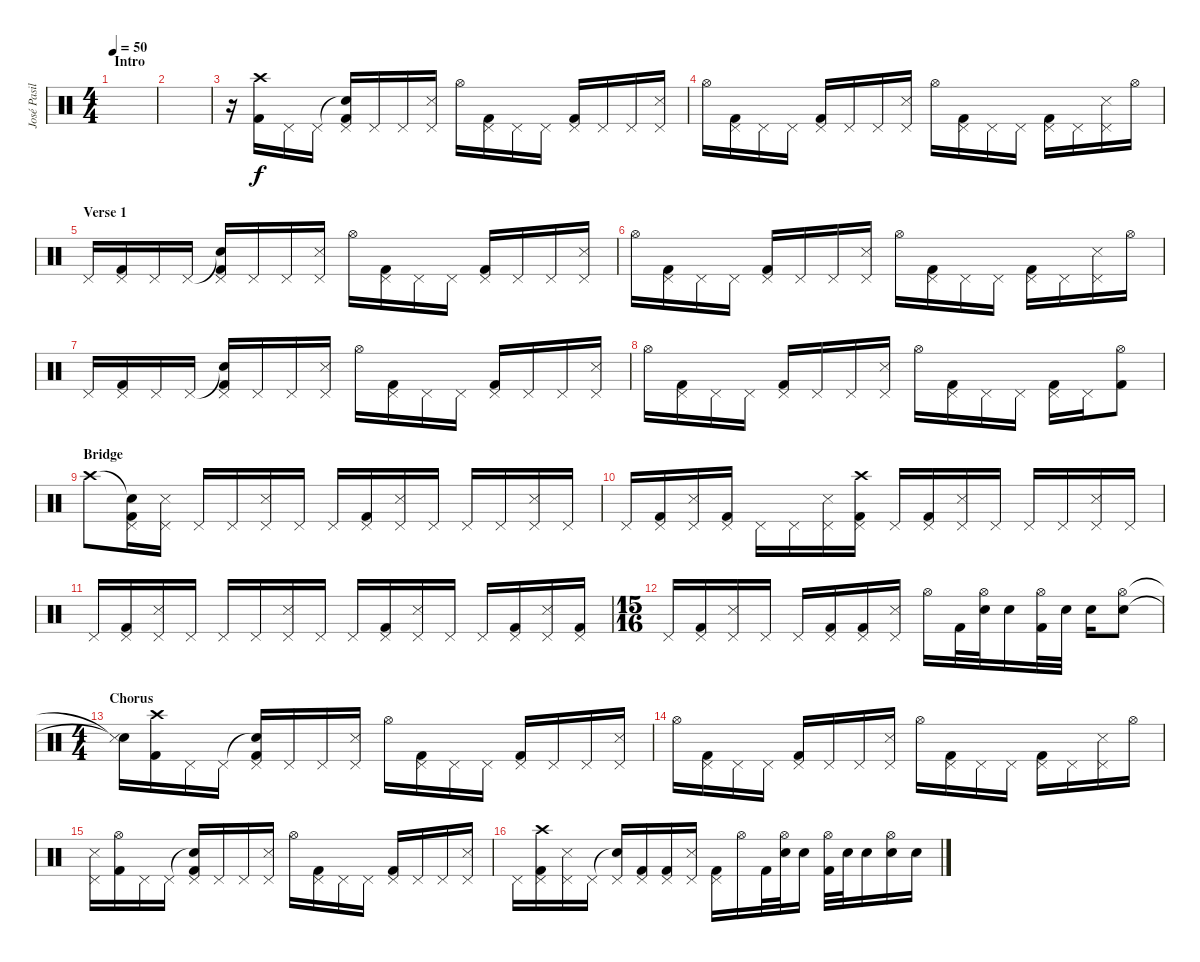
\track ("José Pasillas" "José Pasil") {instrument percussion}
\staff {score}
\articulation defaults
\ts (4 4)
\section ("" "Intro")
\tempo 50
\clef neutral
\ks c
|
|
r.16 ("Crash high (hit)" "Kick (hit) 2").16 "Pedal Hi-Hat (hit)".16 "Pedal Hi-Hat (hit)".16 ("Snare (hit)"{t} "Pedal Hi-Hat (hit)" "Kick (hit) 2").16 "Pedal Hi-Hat (hit)".16 "Pedal Hi-Hat (hit)".16 ("Pedal Hi-Hat (hit)" "Snare (side stick) 3").16 "Hi-Hat (open)".16 ("Pedal Hi-Hat (hit)" "Kick (hit) 2").16 "Pedal Hi-Hat (hit)".16 "Pedal Hi-Hat (hit)".16 ("Pedal Hi-Hat (hit)" "Kick (hit) 2").16 "Pedal Hi-Hat (hit)".16 "Pedal Hi-Hat (hit)".16 ("Pedal Hi-Hat (hit)" "Snare (side stick) 3").16 |
"Hi-Hat (open)".16 ("Pedal Hi-Hat (hit)" "Kick (hit) 2").16 "Pedal Hi-Hat (hit)".16 "Pedal Hi-Hat (hit)".16 ("Pedal Hi-Hat (hit)" "Kick (hit) 2").16 "Pedal Hi-Hat (hit)".16 "Pedal Hi-Hat (hit)".16 ("Pedal Hi-Hat (hit)" "Snare (side stick) 3").16 "Hi-Hat (open)".16 ("Pedal Hi-Hat (hit)" "Kick (hit) 2").16 "Pedal Hi-Hat (hit)".16 "Pedal Hi-Hat (hit)".16 ("Pedal Hi-Hat (hit)" "Kick (hit) 2").16 "Pedal Hi-Hat (hit)".16 ("Pedal Hi-Hat (hit)" "Snare (side stick) 3").16 "Hi-Hat (open)".16 |
\section ("" "Verse 1")
"Pedal Hi-Hat (hit)".16 ("Pedal Hi-Hat (hit)" "Kick (hit) 2").16 "Pedal Hi-Hat (hit)".16 "Pedal Hi-Hat (hit)".16 ("Snare (hit)"{t} "Pedal Hi-Hat (hit)" "Kick (hit) 2").16 "Pedal Hi-Hat (hit)".16 "Pedal Hi-Hat (hit)".16 ("Pedal Hi-Hat (hit)" "Snare (side stick) 3").16 "Hi-Hat (open)".16 ("Pedal Hi-Hat (hit)" "Kick (hit) 2").16 "Pedal Hi-Hat (hit)".16 "Pedal Hi-Hat (hit)".16 ("Pedal Hi-Hat (hit)" "Kick (hit) 2").16 "Pedal Hi-Hat (hit)".16 "Pedal Hi-Hat (hit)".16 ("Pedal Hi-Hat (hit)" "Snare (side stick) 3").16 |
"Hi-Hat (open)".16 ("Pedal Hi-Hat (hit)" "Kick (hit) 2").16 "Pedal Hi-Hat (hit)".16 "Pedal Hi-Hat (hit)".16 ("Pedal Hi-Hat (hit)" "Kick (hit) 2").16 "Pedal Hi-Hat (hit)".16 "Pedal Hi-Hat (hit)".16 ("Pedal Hi-Hat (hit)" "Snare (side stick) 3").16 "Hi-Hat (open)".16 ("Pedal Hi-Hat (hit)" "Kick (hit) 2").16 "Pedal Hi-Hat (hit)".16 "Pedal Hi-Hat (hit)".16 ("Pedal Hi-Hat (hit)" "Kick (hit) 2").16 "Pedal Hi-Hat (hit)".16 ("Pedal Hi-Hat (hit)" "Snare (side stick) 3").16 "Hi-Hat (open)".16 |
"Pedal Hi-Hat (hit)".16 ("Pedal Hi-Hat (hit)" "Kick (hit) 2").16 "Pedal Hi-Hat (hit)".16 "Pedal Hi-Hat (hit)".16 ("Snare (hit)"{t} "Pedal Hi-Hat (hit)" "Kick (hit) 2").16 "Pedal Hi-Hat (hit)".16 "Pedal Hi-Hat (hit)".16 ("Pedal Hi-Hat (hit)" "Snare (side stick) 3").16 "Hi-Hat (open)".16 ("Pedal Hi-Hat (hit)" "Kick (hit) 2").16 "Pedal Hi-Hat (hit)".16 "Pedal Hi-Hat (hit)".16 ("Pedal Hi-Hat (hit)" "Kick (hit) 2").16 "Pedal Hi-Hat (hit)".16 "Pedal Hi-Hat (hit)".16 ("Pedal Hi-Hat (hit)" "Snare (side stick) 3").16 |
"Hi-Hat (open)".16 ("Pedal Hi-Hat (hit)" "Kick (hit) 2").16 "Pedal Hi-Hat (hit)".16 "Pedal Hi-Hat (hit)".16 ("Pedal Hi-Hat (hit)" "Kick (hit) 2").16 "Pedal Hi-Hat (hit)".16 "Pedal Hi-Hat (hit)".16 ("Pedal Hi-Hat (hit)" "Snare (side stick) 3").16 "Hi-Hat (open)".16 ("Pedal Hi-Hat (hit)" "Kick (hit) 2").16 "Pedal Hi-Hat (hit)".16 "Pedal Hi-Hat (hit)".16 ("Pedal Hi-Hat (hit)" "Kick (hit) 2").16 "Pedal Hi-Hat (hit)".16 ("Hi-Hat (open)" "Kick (hit) 2").8 |
\section ("" "Bridge")
"Crash high (hit)".8 ("Snare (hit)"{t} "Pedal Hi-Hat (hit)" "Kick (hit) 2").16 ("Pedal Hi-Hat (hit)" "Snare (side stick) 3").16 "Pedal Hi-Hat (hit)".16 "Pedal Hi-Hat (hit)".16 ("Pedal Hi-Hat (hit)" "Snare (side stick) 3").16 "Pedal Hi-Hat (hit)".16 "Pedal Hi-Hat (hit)".16 ("Pedal Hi-Hat (hit)" "Kick (hit) 2").16 ("Pedal Hi-Hat (hit)" "Snare (side stick) 3").16 "Pedal Hi-Hat (hit)".16 "Pedal Hi-Hat (hit)".16 "Pedal Hi-Hat (hit)".16 ("Pedal Hi-Hat (hit)" "Snare (side stick) 3").16 "Pedal Hi-Hat (hit)".16 |
"Pedal Hi-Hat (hit)".16 ("Pedal Hi-Hat (hit)" "Kick (hit) 2").16 ("Pedal Hi-Hat (hit)" "Snare (side stick) 3").16 ("Pedal Hi-Hat (hit)" "Kick (hit) 2").16 "Pedal Hi-Hat (hit)".16 "Pedal Hi-Hat (hit)".16 ("Pedal Hi-Hat (hit)" "Snare (side stick) 3").16 ("Crash high (hit)" "Pedal Hi-Hat (hit)" "Kick (hit) 2").16 "Pedal Hi-Hat (hit)".16 ("Pedal Hi-Hat (hit)" "Kick (hit) 2").16 ("Pedal Hi-Hat (hit)" "Snare (side stick) 3").16 "Pedal Hi-Hat (hit)".16 "Pedal Hi-Hat (hit)".16 "Pedal Hi-Hat (hit)".16 ("Pedal Hi-Hat (hit)" "Snare (side stick) 3").16 "Pedal Hi-Hat (hit)".16 |
"Pedal Hi-Hat (hit)".16 ("Pedal Hi-Hat (hit)" "Kick (hit) 2").16 ("Pedal Hi-Hat (hit)" "Snare (side stick) 3").16 "Pedal Hi-Hat (hit)".16 "Pedal Hi-Hat (hit)".16 "Pedal Hi-Hat (hit)".16 ("Pedal Hi-Hat (hit)" "Snare (side stick) 3").16 "Pedal Hi-Hat (hit)".16 "Pedal Hi-Hat (hit)".16 ("Pedal Hi-Hat (hit)" "Kick (hit) 2").16 ("Pedal Hi-Hat (hit)" "Snare (side stick) 3").16 "Pedal Hi-Hat (hit)".16 "Pedal Hi-Hat (hit)".16 ("Pedal Hi-Hat (hit)" "Kick (hit) 2").16 ("Pedal Hi-Hat (hit)" "Snare (side stick) 3").16 ("Pedal Hi-Hat (hit)" "Kick (hit) 2").16 |
\ts (15 16)
"Pedal Hi-Hat (hit)".16 ("Pedal Hi-Hat (hit)" "Kick (hit) 2").16 ("Pedal Hi-Hat (hit)" "Snare (side stick) 3").16 "Pedal Hi-Hat (hit)".16 "Pedal Hi-Hat (hit)".16 ("Pedal Hi-Hat (hit)" "Kick (hit) 2").16 ("Pedal Hi-Hat (hit)" "Kick (hit) 2").16 ("Pedal Hi-Hat (hit)" "Snare (side stick) 3").16 "Hi-Hat (open)".16 "Kick (hit) 2".32 ("Hi-Hat (open)" "Snare (hit) 2").32 "Snare (hit) 2".16 ("Hi-Hat (open)" "Kick (hit) 2").32 "Snare (hit) 2".32 "Snare (hit) 2".16 ("Hi-Hat (open)" "Snare (hit) 2").8 |
\ts (4 4)
\section ("" "Chorus")
("Snare (hit)"{t} "Snare (side stick) 3"{t}).16 ("Crash high (hit)" "Kick (hit) 2").16 "Pedal Hi-Hat (hit)".16 "Pedal Hi-Hat (hit)".16 ("Snare (hit)"{t} "Pedal Hi-Hat (hit)" "Kick (hit) 2").16 "Pedal Hi-Hat (hit)".16 "Pedal Hi-Hat (hit)".16 ("Pedal Hi-Hat (hit)" "Snare (side stick) 3").16 "Hi-Hat (open)".16 ("Pedal Hi-Hat (hit)" "Kick (hit) 2").16 "Pedal Hi-Hat (hit)".16 "Pedal Hi-Hat (hit)".16 ("Pedal Hi-Hat (hit)" "Kick (hit) 2").16 "Pedal Hi-Hat (hit)".16 "Pedal Hi-Hat (hit)".16 ("Pedal Hi-Hat (hit)" "Snare (side stick) 3").16 |
"Hi-Hat (open)".16 ("Pedal Hi-Hat (hit)" "Kick (hit) 2").16 "Pedal Hi-Hat (hit)".16 "Pedal Hi-Hat (hit)".16 ("Pedal Hi-Hat (hit)" "Kick (hit) 2").16 "Pedal Hi-Hat (hit)".16 "Pedal Hi-Hat (hit)".16 ("Pedal Hi-Hat (hit)" "Snare (side stick) 3").16 "Hi-Hat (open)".16 ("Pedal Hi-Hat (hit)" "Kick (hit) 2").16 "Pedal Hi-Hat (hit)".16 "Pedal Hi-Hat (hit)".16 ("Pedal Hi-Hat (hit)" "Kick (hit) 2").16 "Pedal Hi-Hat (hit)".16 ("Pedal Hi-Hat (hit)" "Snare (side stick) 3").16 "Hi-Hat (open)".16 |
("Pedal Hi-Hat (hit)" "Snare (side stick) 3").16 ("Hi-Hat (open)" "Kick (hit) 2").16 "Pedal Hi-Hat (hit)".16 "Pedal Hi-Hat (hit)".16 ("Snare (hit)"{t} "Pedal Hi-Hat (hit)" "Kick (hit) 2").16 "Pedal Hi-Hat (hit)".16 "Pedal Hi-Hat (hit)".16 ("Pedal Hi-Hat (hit)" "Snare (side stick) 3").16 "Hi-Hat (open)".16 ("Pedal Hi-Hat (hit)" "Kick (hit) 2").16 "Pedal Hi-Hat (hit)".16 "Pedal Hi-Hat (hit)".16 ("Pedal Hi-Hat (hit)" "Kick (hit) 2").16 "Pedal Hi-Hat (hit)".16 "Pedal Hi-Hat (hit)".16 ("Pedal Hi-Hat (hit)" "Snare (side stick) 3").16 |
"Pedal Hi-Hat (hit)".16 ("Crash high (hit)" "Pedal Hi-Hat (hit)" "Kick (hit) 2").16 ("Pedal Hi-Hat (hit)" "Snare (side stick) 3").16 "Pedal Hi-Hat (hit)".16 ("Snare (hit)"{t} "Pedal Hi-Hat (hit)").16 ("Pedal Hi-Hat (hit)" "Kick (hit) 2").16 ("Pedal Hi-Hat (hit)" "Kick (hit) 2").16 ("Pedal Hi-Hat (hit)" "Snare (side stick) 3").16 ("Pedal Hi-Hat (hit)" "Kick (hit) 2").16 "Hi-Hat (open)".16 "Kick (hit) 2".32 ("Hi-Hat (open)" "Snare (hit) 2").32 "Snare (hit) 2".16 ("Hi-Hat (open)" "Kick (hit) 2").32 "Snare (hit) 2".32 "Snare (hit) 2".16 ("Hi-Hat (open)" "Snare (hit) 2").16 "Snare (hit) 2".16
